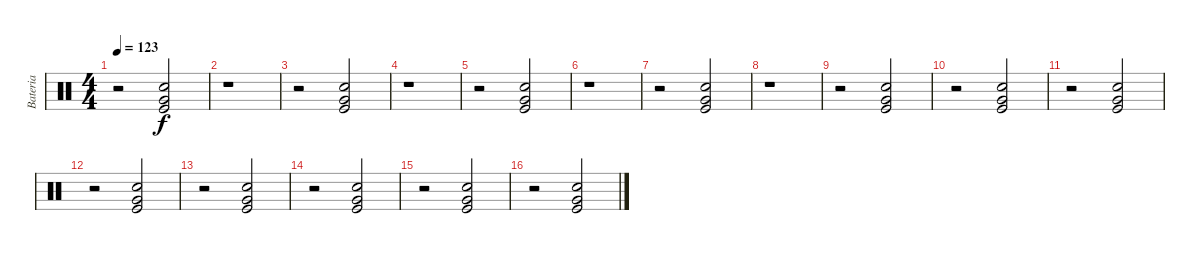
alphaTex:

\track ("Bateria" "Bateria") {instrument percussion}
\staff {score}
\articulation defaults
\ts (4 4)
\tempo 123
\clef neutral
\ks c
r.2{dy f} ("Snare (hit) 2" "Very Low Tom (hit)" "Kick (hit)").2 |
r.1 |
r.2 ("Snare (hit) 2" "Very Low Tom (hit)" "Kick (hit)").2 |
r.1 |
r.2 ("Snare (hit) 2" "Very Low Tom (hit)" "Kick (hit)").2 |
r.1 |
r.2 ("Snare (hit) 2" "Very Low Tom (hit)" "Kick (hit)").2 |
r.1 |
r.2 ("Snare (hit) 2" "Very Low Tom (hit)" "Kick (hit)").2 |
r.2 ("Snare (hit) 2" "Very Low Tom (hit)" "Kick (hit)").2 |
r.2 ("Snare (hit) 2" "Very Low Tom (hit)" "Kick (hit)").2 |
r.2 ("Snare (hit) 2" "Very Low Tom (hit)" "Kick (hit)").2 |
r.2 ("Snare (hit) 2" "Very Low Tom (hit)" "Kick (hit)").2 |
r.2 ("Snare (hit) 2" "Very Low Tom (hit)" "Kick (hit)").2 |
r.2 ("Snare (hit) 2" "Very Low Tom (hit)" "Kick (hit)").2 |
r.2 ("Snare (hit) 2" "Very Low Tom (hit)" "Kick (hit)").2
